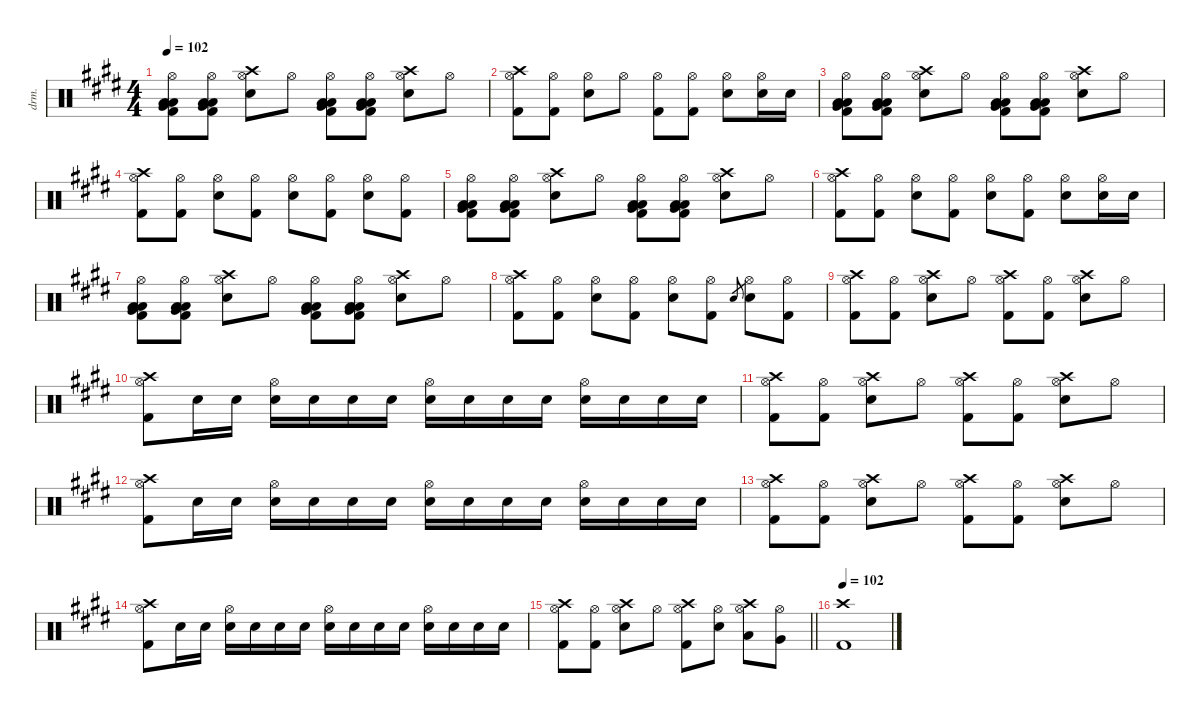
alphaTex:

\defaultSystemsLayout 4
\hideDynamics
\bracketExtendMode nobrackets
\otherSystemsTrackNameOrientation horizontal
\track ("Percussion" "drm.") {instrument percussion}
\staff {score}
\articulation defaults
\ts (4 4)
\tempo 102
\clef neutral
\ks c#minor
("Kick (hit) 2"{acc forcenatural} "Hi-Hat (open)"{acc forcenatural} "Low Tom (hit)"{acc forcenatural} "Very Low Tom (hit)"{acc forcenatural} "Low Floor Tom (hit)"{acc forcenatural}).8{dy f beam Down} ("Kick (hit) 2"{acc forcenatural} "Hi-Hat (open)"{acc forcenatural} "Low Tom (hit)"{acc forcenatural} "Very Low Tom (hit)"{acc forcenatural} "Low Floor Tom (hit)"{acc forcenatural}).8{beam Down} ("Snare (hit) 2"{acc forcenatural} "Hi-Hat (open)"{acc forcenatural} "Crash high (hit)"{acc forcenatural}).8{beam Down} "Hi-Hat (open)"{acc forcenatural}.8{beam Down} ("Kick (hit) 2"{acc forcenatural} "Hi-Hat (open)"{acc forcenatural} "Low Tom (hit)"{acc forcenatural} "Very Low Tom (hit)"{acc forcenatural} "Low Floor Tom (hit)"{acc forcenatural}).8{beam Down} ("Kick (hit) 2"{acc forcenatural} "Hi-Hat (open)"{acc forcenatural} "Low Tom (hit)"{acc forcenatural} "Very Low Tom (hit)"{acc forcenatural} "Low Floor Tom (hit)"{acc forcenatural}).8{beam Down} ("Snare (hit) 2"{acc forcenatural} "Hi-Hat (open)"{acc forcenatural} "Crash high (hit)"{acc forcenatural}).8{beam Down} "Hi-Hat (open)"{acc forcenatural}.8{beam Down} |
("Kick (hit) 2"{acc forcenatural} "Hi-Hat (open)"{acc forcenatural} "Crash high (hit)"{acc forcenatural}).8{beam Down} ("Kick (hit) 2"{acc forcenatural} "Hi-Hat (open)"{acc forcenatural}).8{beam Down} ("Snare (hit) 2"{acc forcenatural} "Hi-Hat (open)"{acc forcenatural}).8{beam Down} "Hi-Hat (open)"{acc forcenatural}.8{beam Down} ("Kick (hit) 2"{acc forcenatural} "Hi-Hat (open)"{acc forcenatural}).8{beam Down} ("Kick (hit) 2"{acc forcenatural} "Hi-Hat (open)"{acc forcenatural}).8{beam Down} ("Snare (hit) 2"{acc forcenatural} "Hi-Hat (open)"{acc forcenatural}).8{beam Down} ("Snare (hit) 2"{acc forcenatural} "Hi-Hat (open)"{acc forcenatural}).16{beam Down} "Snare (hit) 2"{acc forcenatural}.16{beam Down} |
("Kick (hit) 2"{acc forcenatural} "Hi-Hat (open)"{acc forcenatural} "Low Tom (hit)"{acc forcenatural} "Very Low Tom (hit)"{acc forcenatural} "Low Floor Tom (hit)"{acc forcenatural}).8{beam Down} ("Kick (hit) 2"{acc forcenatural} "Hi-Hat (open)"{acc forcenatural} "Low Tom (hit)"{acc forcenatural} "Very Low Tom (hit)"{acc forcenatural} "Low Floor Tom (hit)"{acc forcenatural}).8{beam Down} ("Snare (hit) 2"{acc forcenatural} "Hi-Hat (open)"{acc forcenatural} "Crash high (hit)"{acc forcenatural}).8{beam Down} "Hi-Hat (open)"{acc forcenatural}.8{beam Down} ("Kick (hit) 2"{acc forcenatural} "Hi-Hat (open)"{acc forcenatural} "Low Tom (hit)"{acc forcenatural} "Very Low Tom (hit)"{acc forcenatural} "Low Floor Tom (hit)"{acc forcenatural}).8{beam Down} ("Kick (hit) 2"{acc forcenatural} "Hi-Hat (open)"{acc forcenatural} "Low Tom (hit)"{acc forcenatural} "Very Low Tom (hit)"{acc forcenatural} "Low Floor Tom (hit)"{acc forcenatural}).8{beam Down} ("Snare (hit) 2"{acc forcenatural} "Hi-Hat (open)"{acc forcenatural} "Crash high (hit)"{acc forcenatural}).8{beam Down} "Hi-Hat (open)"{acc forcenatural}.8{beam Down} |
("Kick (hit) 2"{acc forcenatural} "Hi-Hat (open)"{acc forcenatural} "Crash high (hit)"{acc forcenatural}).8{beam Down} ("Kick (hit) 2"{acc forcenatural} "Hi-Hat (open)"{acc forcenatural}).8{beam Down} ("Snare (hit) 2"{acc forcenatural} "Hi-Hat (open)"{acc forcenatural}).8{beam Down} ("Kick (hit) 2"{acc forcenatural} "Hi-Hat (open)"{acc forcenatural}).8{beam Down} ("Snare (hit) 2"{acc forcenatural} "Hi-Hat (open)"{acc forcenatural}).8{beam Down} ("Kick (hit) 2"{acc forcenatural} "Hi-Hat (open)"{acc forcenatural}).8{beam Down} ("Snare (hit) 2"{acc forcenatural} "Hi-Hat (open)"{acc forcenatural}).8{beam Down} ("Kick (hit) 2"{acc forcenatural} "Hi-Hat (open)"{acc forcenatural}).8{beam Down} |
("Kick (hit) 2"{acc forcenatural} "Hi-Hat (open)"{acc forcenatural} "Low Tom (hit)"{acc forcenatural} "Very Low Tom (hit)"{acc forcenatural} "Low Floor Tom (hit)"{acc forcenatural}).8{beam Down} ("Kick (hit) 2"{acc forcenatural} "Hi-Hat (open)"{acc forcenatural} "Low Tom (hit)"{acc forcenatural} "Very Low Tom (hit)"{acc forcenatural} "Low Floor Tom (hit)"{acc forcenatural}).8{beam Down} ("Snare (hit) 2"{acc forcenatural} "Hi-Hat (open)"{acc forcenatural} "Crash high (hit)"{acc forcenatural}).8{beam Down} "Hi-Hat (open)"{acc forcenatural}.8{beam Down} ("Kick (hit) 2"{acc forcenatural} "Hi-Hat (open)"{acc forcenatural} "Low Tom (hit)"{acc forcenatural} "Very Low Tom (hit)"{acc forcenatural} "Low Floor Tom (hit)"{acc forcenatural}).8{beam Down} ("Kick (hit) 2"{acc forcenatural} "Hi-Hat (open)"{acc forcenatural} "Low Tom (hit)"{acc forcenatural} "Very Low Tom (hit)"{acc forcenatural} "Low Floor Tom (hit)"{acc forcenatural}).8{beam Down} ("Snare (hit) 2"{acc forcenatural} "Hi-Hat (open)"{acc forcenatural} "Crash high (hit)"{acc forcenatural}).8{beam Down} "Hi-Hat (open)"{acc forcenatural}.8{beam Down} |
("Kick (hit) 2"{acc forcenatural} "Hi-Hat (open)"{acc forcenatural} "Crash high (hit)"{acc forcenatural}).8{beam Down} ("Kick (hit) 2"{acc forcenatural} "Hi-Hat (open)"{acc forcenatural}).8{beam Down} ("Snare (hit) 2"{acc forcenatural} "Hi-Hat (open)"{acc forcenatural}).8{beam Down} ("Kick (hit) 2"{acc forcenatural} "Hi-Hat (open)"{acc forcenatural}).8{beam Down} ("Snare (hit) 2"{acc forcenatural} "Hi-Hat (open)"{acc forcenatural}).8{beam Down} ("Kick (hit) 2"{acc forcenatural} "Hi-Hat (open)"{acc forcenatural}).8{beam Down} ("Snare (hit) 2"{acc forcenatural} "Hi-Hat (open)"{acc forcenatural}).8{beam Down} ("Snare (hit) 2"{acc forcenatural} "Hi-Hat (open)"{acc forcenatural}).16{beam Down} "Snare (hit) 2"{acc forcenatural}.16{beam Down} |
("Kick (hit) 2"{acc forcenatural} "Hi-Hat (open)"{acc forcenatural} "Low Tom (hit)"{acc forcenatural} "Very Low Tom (hit)"{acc forcenatural} "Low Floor Tom (hit)"{acc forcenatural}).8{beam Down} ("Kick (hit) 2"{acc forcenatural} "Hi-Hat (open)"{acc forcenatural} "Low Tom (hit)"{acc forcenatural} "Very Low Tom (hit)"{acc forcenatural} "Low Floor Tom (hit)"{acc forcenatural}).8{beam Down} ("Snare (hit) 2"{acc forcenatural} "Hi-Hat (open)"{acc forcenatural} "Crash high (hit)"{acc forcenatural}).8{beam Down} "Hi-Hat (open)"{acc forcenatural}.8{beam Down} ("Kick (hit) 2"{acc forcenatural} "Hi-Hat (open)"{acc forcenatural} "Low Tom (hit)"{acc forcenatural} "Very Low Tom (hit)"{acc forcenatural} "Low Floor Tom (hit)"{acc forcenatural}).8{beam Down} ("Kick (hit) 2"{acc forcenatural} "Hi-Hat (open)"{acc forcenatural} "Low Tom (hit)"{acc forcenatural} "Very Low Tom (hit)"{acc forcenatural} "Low Floor Tom (hit)"{acc forcenatural}).8{beam Down} ("Snare (hit) 2"{acc forcenatural} "Hi-Hat (open)"{acc forcenatural} "Crash high (hit)"{acc forcenatural}).8{beam Down} "Hi-Hat (open)"{acc forcenatural}.8{beam Down} |
("Kick (hit) 2"{acc forcenatural} "Hi-Hat (open)"{acc forcenatural} "Crash high (hit)"{acc forcenatural}).8{beam Down} ("Kick (hit) 2"{acc forcenatural} "Hi-Hat (open)"{acc forcenatural}).8{beam Down} ("Snare (hit) 2"{acc forcenatural} "Hi-Hat (open)"{acc forcenatural}).8{beam Down} ("Kick (hit) 2"{acc forcenatural} "Hi-Hat (open)"{acc forcenatural}).8{beam Down} ("Snare (hit) 2"{acc forcenatural} "Hi-Hat (open)"{acc forcenatural}).8{beam Down} ("Kick (hit) 2"{acc forcenatural} "Hi-Hat (open)"{acc forcenatural}).8{beam Down} "Snare (hit) 2"{acc forcenatural}.8{gr dy mf beam Up} ("Snare (hit) 2"{acc forcenatural} "Hi-Hat (open)"{acc forcenatural}).8{dy f beam Down} ("Kick (hit) 2"{acc forcenatural} "Hi-Hat (open)"{acc forcenatural}).8{beam Down} |
("Kick (hit) 2"{acc forcenatural} "Hi-Hat (open)"{acc forcenatural} "Crash high (hit)"{acc forcenatural}).8{beam Down} ("Kick (hit) 2"{acc forcenatural} "Hi-Hat (open)"{acc forcenatural}).8{beam Down} ("Snare (hit) 2"{acc forcenatural} "Hi-Hat (open)"{acc forcenatural} "Crash high (hit)"{acc forcenatural}).8{beam Down} "Hi-Hat (open)"{acc forcenatural}.8{beam Down} ("Kick (hit) 2"{acc forcenatural} "Hi-Hat (open)"{acc forcenatural} "Crash high (hit)"{acc forcenatural}).8{beam Down} ("Kick (hit) 2"{acc forcenatural} "Hi-Hat (open)"{acc forcenatural}).8{beam Down} ("Snare (hit) 2"{acc forcenatural} "Hi-Hat (open)"{acc forcenatural} "Crash high (hit)"{acc forcenatural}).8{beam Down} "Hi-Hat (open)"{acc forcenatural}.8{beam Down} |
("Kick (hit) 2"{acc forcenatural} "Hi-Hat (open)"{acc forcenatural} "Crash high (hit)"{acc forcenatural}).8{beam Down} "Snare (hit) 2"{acc forcenatural}.16{beam Down} "Snare (hit) 2"{acc forcenatural}.16{beam Down} ("Snare (hit) 2"{acc forcenatural} "Hi-Hat (open)"{acc forcenatural}).16{beam Down} "Snare (hit) 2"{acc forcenatural}.16{beam Down} "Snare (hit) 2"{acc forcenatural}.16{beam Down} "Snare (hit) 2"{acc forcenatural}.16{beam Down} ("Snare (hit) 2"{acc forcenatural} "Hi-Hat (open)"{acc forcenatural}).16{beam Down} "Snare (hit) 2"{acc forcenatural}.16{beam Down} "Snare (hit) 2"{acc forcenatural}.16{beam Down} "Snare (hit) 2"{acc forcenatural}.16{beam Down} ("Snare (hit) 2"{acc forcenatural} "Hi-Hat (open)"{acc forcenatural}).16{beam Down} "Snare (hit) 2"{acc forcenatural}.16{beam Down} "Snare (hit) 2"{acc forcenatural}.16{beam Down} "Snare (hit) 2"{acc forcenatural}.16{beam Down} |
("Kick (hit) 2"{acc forcenatural} "Hi-Hat (open)"{acc forcenatural} "Crash high (hit)"{acc forcenatural}).8{beam Down} ("Kick (hit) 2"{acc forcenatural} "Hi-Hat (open)"{acc forcenatural}).8{beam Down} ("Snare (hit) 2"{acc forcenatural} "Hi-Hat (open)"{acc forcenatural} "Crash high (hit)"{acc forcenatural}).8{beam Down} "Hi-Hat (open)"{acc forcenatural}.8{beam Down} ("Kick (hit) 2"{acc forcenatural} "Hi-Hat (open)"{acc forcenatural} "Crash high (hit)"{acc forcenatural}).8{beam Down} ("Kick (hit) 2"{acc forcenatural} "Hi-Hat (open)"{acc forcenatural}).8{beam Down} ("Snare (hit) 2"{acc forcenatural} "Hi-Hat (open)"{acc forcenatural} "Crash high (hit)"{acc forcenatural}).8{beam Down} "Hi-Hat (open)"{acc forcenatural}.8{beam Down} |
("Kick (hit) 2"{acc forcenatural} "Hi-Hat (open)"{acc forcenatural} "Crash high (hit)"{acc forcenatural}).8{beam Down} "Snare (hit) 2"{acc forcenatural}.16{beam Down} "Snare (hit) 2"{acc forcenatural}.16{beam Down} ("Snare (hit) 2"{acc forcenatural} "Hi-Hat (open)"{acc forcenatural}).16{beam Down} "Snare (hit) 2"{acc forcenatural}.16{beam Down} "Snare (hit) 2"{acc forcenatural}.16{beam Down} "Snare (hit) 2"{acc forcenatural}.16{beam Down} ("Snare (hit) 2"{acc forcenatural} "Hi-Hat (open)"{acc forcenatural}).16{beam Down} "Snare (hit) 2"{acc forcenatural}.16{beam Down} "Snare (hit) 2"{acc forcenatural}.16{beam Down} "Snare (hit) 2"{acc forcenatural}.16{beam Down} ("Snare (hit) 2"{acc forcenatural} "Hi-Hat (open)"{acc forcenatural}).16{beam Down} "Snare (hit) 2"{acc forcenatural}.16{beam Down} "Snare (hit) 2"{acc forcenatural}.16{beam Down} "Snare (hit) 2"{acc forcenatural}.16{beam Down} |
("Kick (hit) 2"{acc forcenatural} "Hi-Hat (open)"{acc forcenatural} "Crash high (hit)"{acc forcenatural}).8{beam Down} ("Kick (hit) 2"{acc forcenatural} "Hi-Hat (open)"{acc forcenatural}).8{beam Down} ("Snare (hit) 2"{acc forcenatural} "Hi-Hat (open)"{acc forcenatural} "Crash high (hit)"{acc forcenatural}).8{beam Down} "Hi-Hat (open)"{acc forcenatural}.8{beam Down} ("Kick (hit) 2"{acc forcenatural} "Hi-Hat (open)"{acc forcenatural} "Crash high (hit)"{acc forcenatural}).8{beam Down} ("Kick (hit) 2"{acc forcenatural} "Hi-Hat (open)"{acc forcenatural}).8{beam Down} ("Snare (hit) 2"{acc forcenatural} "Hi-Hat (open)"{acc forcenatural} "Crash high (hit)"{acc forcenatural}).8{beam Down} "Hi-Hat (open)"{acc forcenatural}.8{beam Down} |
("Kick (hit) 2"{acc forcenatural} "Hi-Hat (open)"{acc forcenatural} "Crash high (hit)"{acc forcenatural}).8{beam Down} "Snare (hit) 2"{acc forcenatural}.16{beam Down} "Snare (hit) 2"{acc forcenatural}.16{beam Down} ("Snare (hit) 2"{acc forcenatural} "Hi-Hat (open)"{acc forcenatural}).16{beam Down} "Snare (hit) 2"{acc forcenatural}.16{beam Down} "Snare (hit) 2"{acc forcenatural}.16{beam Down} "Snare (hit) 2"{acc forcenatural}.16{beam Down} ("Snare (hit) 2"{acc forcenatural} "Hi-Hat (open)"{acc forcenatural}).16{beam Down} "Snare (hit) 2"{acc forcenatural}.16{beam Down} "Snare (hit) 2"{acc forcenatural}.16{beam Down} "Snare (hit) 2"{acc forcenatural}.16{beam Down} ("Snare (hit) 2"{acc forcenatural} "Hi-Hat (open)"{acc forcenatural}).16{beam Down} "Snare (hit) 2"{acc forcenatural}.16{beam Down} "Snare (hit) 2"{acc forcenatural}.16{beam Down} "Snare (hit) 2"{acc forcenatural}.16{beam Down} |
\barLineRight lightlight
("Kick (hit) 2"{acc forcenatural} "Hi-Hat (open)"{acc forcenatural} "Crash high (hit)"{acc forcenatural}).8{beam Down} ("Kick (hit) 2"{acc forcenatural} "Hi-Hat (open)"{acc forcenatural}).8{beam Down} ("Snare (hit) 2"{acc forcenatural} "Hi-Hat (open)"{acc forcenatural} "Crash high (hit)"{acc forcenatural}).8{beam Down} "Hi-Hat (open)"{acc forcenatural}.8{beam Down} ("Kick (hit) 2"{acc forcenatural} "Hi-Hat (open)"{acc forcenatural} "Crash high (hit)"{acc forcenatural}).8{beam Down} ("Snare (hit) 2"{acc forcenatural} "Hi-Hat (open)"{acc forcenatural}).8{beam Down} ("Low Tom (hit)"{acc forcenatural} "Hi-Hat (open)"{acc forcenatural} "Crash high (hit)"{acc forcenatural}).8{beam Down} ("Very Low Tom (hit)"{acc forcenatural} "Hi-Hat (open)"{acc forcenatural}).8{beam Down} |
\tempo 102
("Kick (hit) 2"{acc forcenatural} "Crash high (hit)"{acc forcenatural}).1{beam Down}
